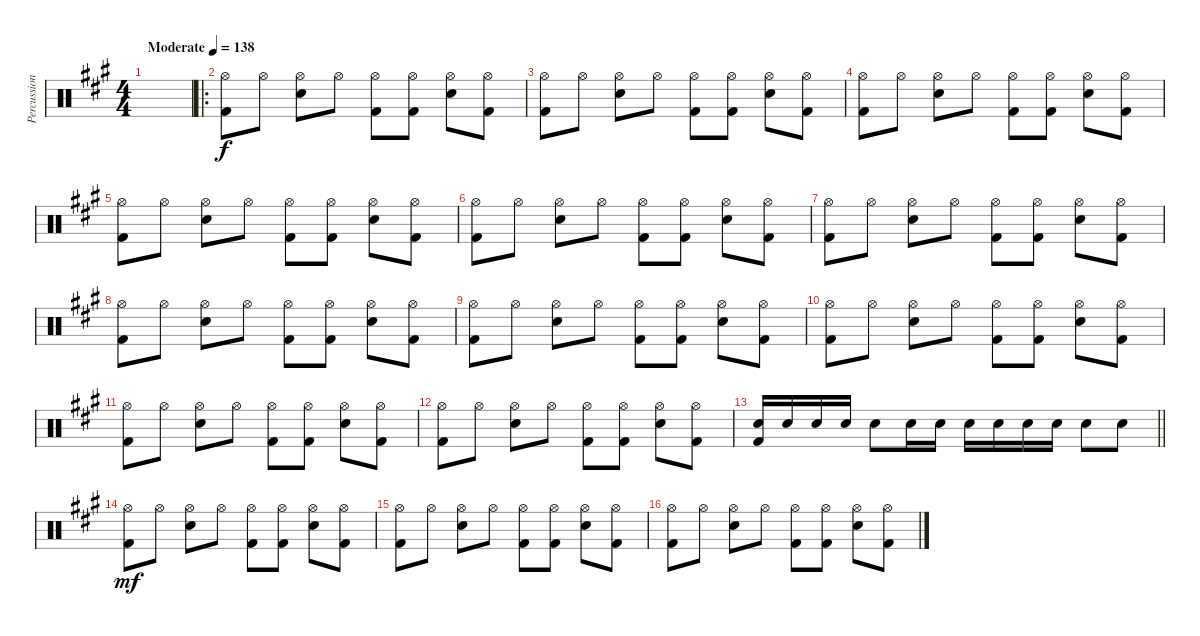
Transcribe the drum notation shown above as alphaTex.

\track ("Percussion" "Percussion") {instrument percussion}
\staff {score}
\articulation defaults
\ts (4 4)
\tempo (138 "Moderate")
\clef neutral
\ks a
|
\ro
("Hi-Hat (open)" "Kick (hit) 2").8 "Hi-Hat (open)".8 ("Hi-Hat (open)" "Snare (hit) 2").8 "Hi-Hat (open)".8 ("Hi-Hat (open)" "Kick (hit) 2").8 ("Hi-Hat (open)" "Kick (hit) 2").8 ("Hi-Hat (open)" "Snare (hit) 2").8 ("Hi-Hat (open)" "Kick (hit) 2").8 |
("Hi-Hat (open)" "Kick (hit) 2").8 "Hi-Hat (open)".8 ("Hi-Hat (open)" "Snare (hit) 2").8 "Hi-Hat (open)".8 ("Hi-Hat (open)" "Kick (hit) 2").8 ("Hi-Hat (open)" "Kick (hit) 2").8 ("Hi-Hat (open)" "Snare (hit) 2").8 ("Hi-Hat (open)" "Kick (hit) 2").8 |
("Hi-Hat (open)" "Kick (hit) 2").8 "Hi-Hat (open)".8 ("Hi-Hat (open)" "Snare (hit) 2").8 "Hi-Hat (open)".8 ("Hi-Hat (open)" "Kick (hit) 2").8 ("Hi-Hat (open)" "Kick (hit) 2").8 ("Hi-Hat (open)" "Snare (hit) 2").8 ("Hi-Hat (open)" "Kick (hit) 2").8 |
("Hi-Hat (open)" "Kick (hit) 2").8 "Hi-Hat (open)".8 ("Hi-Hat (open)" "Snare (hit) 2").8 "Hi-Hat (open)".8 ("Hi-Hat (open)" "Kick (hit) 2").8 ("Hi-Hat (open)" "Kick (hit) 2").8 ("Hi-Hat (open)" "Snare (hit) 2").8 ("Hi-Hat (open)" "Kick (hit) 2").8 |
("Hi-Hat (open)" "Kick (hit) 2").8 "Hi-Hat (open)".8 ("Hi-Hat (open)" "Snare (hit) 2").8 "Hi-Hat (open)".8 ("Hi-Hat (open)" "Kick (hit) 2").8 ("Hi-Hat (open)" "Kick (hit) 2").8 ("Hi-Hat (open)" "Snare (hit) 2").8 ("Hi-Hat (open)" "Kick (hit) 2").8 |
("Hi-Hat (open)" "Kick (hit) 2").8 "Hi-Hat (open)".8 ("Hi-Hat (open)" "Snare (hit) 2").8 "Hi-Hat (open)".8 ("Hi-Hat (open)" "Kick (hit) 2").8 ("Hi-Hat (open)" "Kick (hit) 2").8 ("Hi-Hat (open)" "Snare (hit) 2").8 ("Hi-Hat (open)" "Kick (hit) 2").8 |
("Hi-Hat (open)" "Kick (hit) 2").8 "Hi-Hat (open)".8 ("Hi-Hat (open)" "Snare (hit) 2").8 "Hi-Hat (open)".8 ("Hi-Hat (open)" "Kick (hit) 2").8 ("Hi-Hat (open)" "Kick (hit) 2").8 ("Hi-Hat (open)" "Snare (hit) 2").8 ("Hi-Hat (open)" "Kick (hit) 2").8 |
("Hi-Hat (open)" "Kick (hit) 2").8 "Hi-Hat (open)".8 ("Hi-Hat (open)" "Snare (hit) 2").8 "Hi-Hat (open)".8 ("Hi-Hat (open)" "Kick (hit) 2").8 ("Hi-Hat (open)" "Kick (hit) 2").8 ("Hi-Hat (open)" "Snare (hit) 2").8 ("Hi-Hat (open)" "Kick (hit) 2").8 |
("Hi-Hat (open)" "Kick (hit) 2").8 "Hi-Hat (open)".8 ("Hi-Hat (open)" "Snare (hit) 2").8 "Hi-Hat (open)".8 ("Hi-Hat (open)" "Kick (hit) 2").8 ("Hi-Hat (open)" "Kick (hit) 2").8 ("Hi-Hat (open)" "Snare (hit) 2").8 ("Hi-Hat (open)" "Kick (hit) 2").8 |
("Hi-Hat (open)" "Kick (hit) 2").8 "Hi-Hat (open)".8 ("Hi-Hat (open)" "Snare (hit) 2").8 "Hi-Hat (open)".8 ("Hi-Hat (open)" "Kick (hit) 2").8 ("Hi-Hat (open)" "Kick (hit) 2").8 ("Hi-Hat (open)" "Snare (hit) 2").8 ("Hi-Hat (open)" "Kick (hit) 2").8 |
("Hi-Hat (open)" "Kick (hit) 2").8 "Hi-Hat (open)".8 ("Hi-Hat (open)" "Snare (hit) 2").8 "Hi-Hat (open)".8 ("Hi-Hat (open)" "Kick (hit) 2").8 ("Hi-Hat (open)" "Kick (hit) 2").8 ("Hi-Hat (open)" "Snare (hit) 2").8 ("Hi-Hat (open)" "Kick (hit) 2").8 |
\barLineRight lightlight
("Snare (hit) 2" "Kick (hit) 2").16{dy f} "Snare (hit) 2".16 "Snare (hit) 2".16 "Snare (hit) 2".16 "Snare (hit) 2".8 "Snare (hit) 2".16 "Snare (hit) 2".16 "Snare (hit) 2".16 "Snare (hit) 2".16 "Snare (hit) 2".16 "Snare (hit) 2".16 "Snare (hit) 2".8 "Snare (hit) 2".8 |
("Hi-Hat (open)" "Kick (hit) 2").8{dy mf} "Hi-Hat (open)".8 ("Hi-Hat (open)" "Snare (hit) 2").8 "Hi-Hat (open)".8 ("Hi-Hat (open)" "Kick (hit) 2").8 ("Hi-Hat (open)" "Kick (hit) 2").8 ("Hi-Hat (open)" "Snare (hit) 2").8 ("Hi-Hat (open)" "Kick (hit) 2").8 |
("Hi-Hat (open)" "Kick (hit) 2").8 "Hi-Hat (open)".8 ("Hi-Hat (open)" "Snare (hit) 2").8 "Hi-Hat (open)".8 ("Hi-Hat (open)" "Kick (hit) 2").8 ("Hi-Hat (open)" "Kick (hit) 2").8 ("Hi-Hat (open)" "Snare (hit) 2").8 ("Hi-Hat (open)" "Kick (hit) 2").8 |
("Hi-Hat (open)" "Kick (hit) 2").8 "Hi-Hat (open)".8 ("Hi-Hat (open)" "Snare (hit) 2").8 "Hi-Hat (open)".8 ("Hi-Hat (open)" "Kick (hit) 2").8 ("Hi-Hat (open)" "Kick (hit) 2").8 ("Hi-Hat (open)" "Snare (hit) 2").8 ("Hi-Hat (open)" "Kick (hit) 2").8
